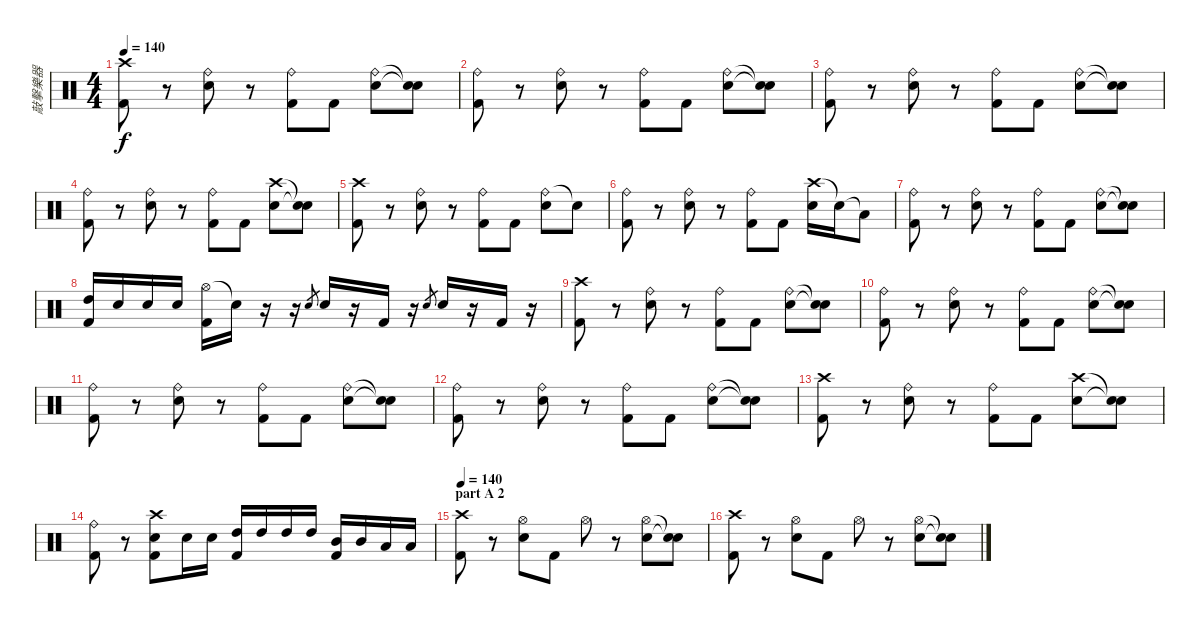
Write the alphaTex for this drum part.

\track ("敲擊樂器" "敲擊樂器") {instrument percussion}
\staff {score}
\articulation defaults
\ts (4 4)
\tempo 140
\clef neutral
\ks c
("Crash high (hit)" "Kick (hit) 2").8{dy f} r.8 ("Ride (bell)" "Snare (hit) 2").8 r.8 ("Ride (bell)" "Kick (hit) 2").8 "Kick (hit) 2".8 ("Ride (bell)" "Snare (hit) 2").8 ("Snare (hit)"{t} "Snare (hit)"{t}).8 |
("Ride (bell)" "Kick (hit) 2").8 r.8 ("Ride (bell)" "Snare (hit) 2").8 r.8 ("Ride (bell)" "Kick (hit) 2").8 "Kick (hit) 2".8 ("Ride (bell)" "Snare (hit) 2").8 ("Snare (hit)"{t} "Snare (hit)"{t}).8 |
("Ride (bell)" "Kick (hit) 2").8 r.8 ("Ride (bell)" "Snare (hit) 2").8 r.8 ("Ride (bell)" "Kick (hit) 2").8 "Kick (hit) 2".8 ("Ride (bell)" "Snare (hit) 2").8 ("Snare (hit)"{t} "Snare (hit)"{t}).8 |
("Ride (bell)" "Kick (hit) 2").8 r.8 ("Ride (bell)" "Snare (hit) 2").8 r.8 ("Ride (bell)" "Kick (hit) 2").8 "Kick (hit) 2".8 ("Crash high (hit)" "Snare (hit) 2").8 ("Snare (hit)"{t} "Snare (hit)"{t}).8 |
("Crash high (hit)" "Kick (hit) 2").8 r.8 ("Ride (bell)" "Snare (hit) 2").8 r.8 ("Ride (bell)" "Kick (hit) 2").8 "Kick (hit) 2".8 ("Ride (bell)" "Snare (hit) 2").8 "Snare (hit)"{t}.8 |
("Ride (bell)" "Kick (hit) 2").8 r.8 ("Ride (bell)" "Snare (hit) 2").8 r.8 ("Ride (bell)" "Kick (hit) 2").8 "Kick (hit) 2".8 ("Crash high (hit)" "Snare (hit) 2").16 "Snare (hit) 2"{t}.16 "Low Tom (hit)"{t}.8 |
("Ride (bell)" "Kick (hit) 2").8 r.8 ("Ride (bell)" "Snare (hit) 2").8 r.8 ("Ride (bell)" "Kick (hit) 2").8 "Kick (hit) 2".8 ("Ride (bell)" "Snare (hit) 2").8 ("Snare (hit)"{t} "Snare (hit)"{t}).8 |
("High Tom (hit)" "Kick (hit) 2").16 "Snare (hit) 2".16 "Snare (hit) 2".16 "Snare (hit) 2".16 ("Hi-Hat (open)" "Kick (hit) 2").16 "Snare (hit)"{t}.16 r.16 r.16 "Snare (hit) 2".8{gr} "Snare (hit) 2".16 r.16 "Kick (hit) 2".16 r.16 "Snare (hit) 2".8{gr} "Snare (hit) 2".16 r.16 "Kick (hit) 2".16 r.16 |
("Crash high (hit)" "Kick (hit) 2").8 r.8 ("Ride (bell)" "Snare (hit) 2").8 r.8 ("Ride (bell)" "Kick (hit) 2").8 "Kick (hit) 2".8 ("Ride (bell)" "Snare (hit) 2").8 ("Snare (hit)"{t} "Snare (hit)"{t}).8 |
("Ride (bell)" "Kick (hit) 2").8 r.8 ("Ride (bell)" "Snare (hit) 2").8 r.8 ("Ride (bell)" "Kick (hit) 2").8 "Kick (hit) 2".8 ("Ride (bell)" "Snare (hit) 2").8 ("Snare (hit)"{t} "Snare (hit)"{t}).8 |
("Ride (bell)" "Kick (hit) 2").8 r.8 ("Ride (bell)" "Snare (hit) 2").8 r.8 ("Ride (bell)" "Kick (hit) 2").8 "Kick (hit) 2".8 ("Ride (bell)" "Snare (hit) 2").8 ("Snare (hit)"{t} "Snare (hit)"{t}).8 |
("Ride (bell)" "Kick (hit) 2").8 r.8 ("Ride (bell)" "Snare (hit) 2").8 r.8 ("Ride (bell)" "Kick (hit) 2").8 "Kick (hit) 2".8 ("Ride (bell)" "Snare (hit) 2").8 ("Snare (hit)"{t} "Snare (hit)"{t}).8 |
("Crash high (hit)" "Kick (hit) 2").8 r.8 ("Ride (bell)" "Snare (hit) 2").8 r.8 ("Ride (bell)" "Kick (hit) 2").8 "Kick (hit) 2".8 ("Crash high (hit)" "Snare (hit) 2").8 ("Snare (hit)"{t} "Snare (hit)"{t}).8 |
("Ride (bell)" "Kick (hit) 2").8 r.8 ("Crash high (hit)" "Snare (hit) 2" "Kick (hit) 2").8 "Snare (hit) 2".16 "Snare (hit) 2".16 ("High Tom (hit)" "Kick (hit) 2").16 "High Tom (hit)".16 "High Tom (hit)".16 "High Tom (hit)".16 ("Mid Tom (hit)" "Kick (hit) 2").16 "Mid Tom (hit)".16 "Low Tom (hit)".16 "Low Tom (hit)".16 |
\section ("" "part A 2")
\tempo 140
("Crash high (hit)" "Kick (hit) 2").8 r.8 ("Hi-Hat (open)" "Snare (hit) 2").8 "Kick (hit) 2".8 "Hi-Hat (open)".8 r.8 ("Hi-Hat (open)" "Snare (hit) 2").8 ("Snare (hit)"{t} "Snare (hit)"{t}).8 |
("Crash high (hit)" "Kick (hit) 2").8 r.8 ("Hi-Hat (open)" "Snare (hit) 2").8 "Kick (hit) 2".8 "Hi-Hat (open)".8 r.8 ("Hi-Hat (open)" "Snare (hit) 2").8 ("Snare (hit)"{t} "Snare (hit)"{t}).8
